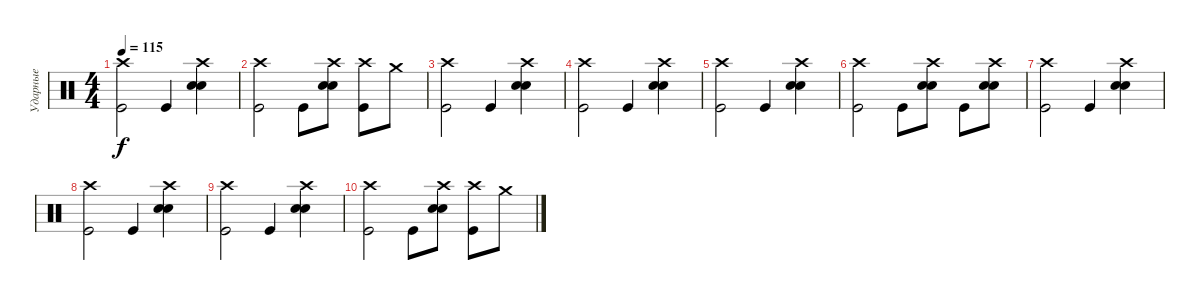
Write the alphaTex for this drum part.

\track ("Ударные" "Ударные") {instrument percussion}
\staff {score}
\articulation defaults
\ts (4 4)
\tempo 115
\clef neutral
\ks c
("Crash high (hit)" "Kick (hit)").2{dy f} "Kick (hit)".4 ("Crash high (hit)" "Snare (hit) 2" "Snare (hit) 2").4 |
("Crash high (hit)" "Kick (hit)").2 "Kick (hit)".8 ("Crash high (hit)" "Snare (hit) 2" "Snare (hit) 2").8 ("Crash high (hit)" "Kick (hit)").8 "Crash medium (hit)".8 |
("Crash high (hit)" "Kick (hit)").2 "Kick (hit)".4 ("Crash high (hit)" "Snare (hit) 2" "Snare (hit) 2").4 |
("Crash high (hit)" "Kick (hit)").2 "Kick (hit)".4 ("Crash high (hit)" "Snare (hit) 2" "Snare (hit) 2").4 |
("Crash high (hit)" "Kick (hit)").2 "Kick (hit)".4 ("Crash high (hit)" "Snare (hit) 2" "Snare (hit) 2").4 |
("Crash high (hit)" "Kick (hit)").2 "Kick (hit)".8 ("Crash high (hit)" "Snare (hit) 2" "Snare (hit) 2").8 "Kick (hit)".8 ("Crash high (hit)" "Snare (hit) 2" "Snare (hit) 2").8 |
("Crash high (hit)" "Kick (hit)").2 "Kick (hit)".4 ("Crash high (hit)" "Snare (hit) 2" "Snare (hit) 2").4 |
("Crash high (hit)" "Kick (hit)").2 "Kick (hit)".4 ("Crash high (hit)" "Snare (hit) 2" "Snare (hit) 2").4 |
("Crash high (hit)" "Kick (hit)").2 "Kick (hit)".4 ("Crash high (hit)" "Snare (hit) 2" "Snare (hit) 2").4 |
("Crash high (hit)" "Kick (hit)").2 "Kick (hit)".8 ("Crash high (hit)" "Snare (hit) 2" "Snare (hit) 2").8 ("Crash high (hit)" "Kick (hit)").8 "Crash medium (hit)".8
